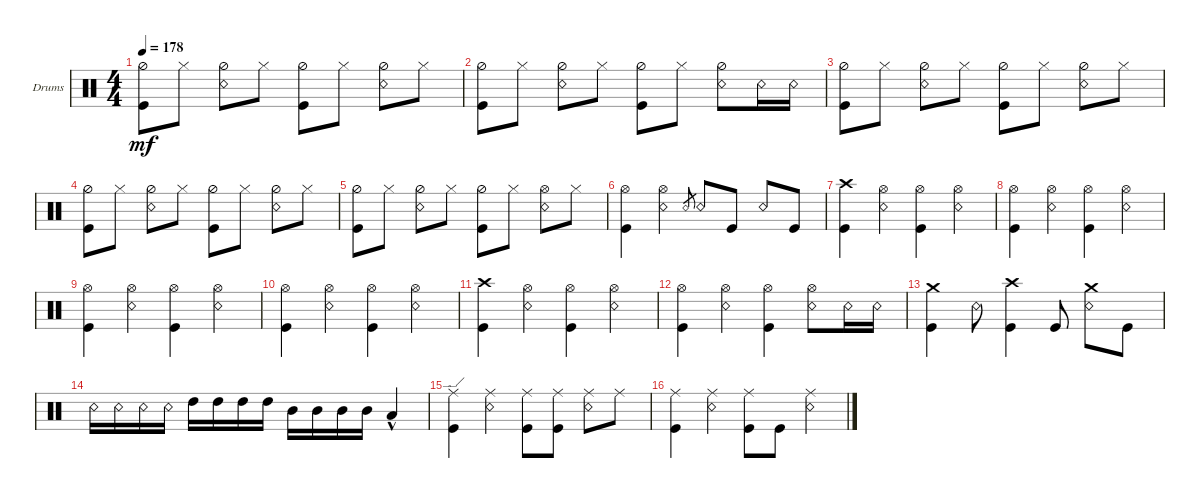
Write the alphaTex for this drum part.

\defaultSystemsLayout 4
\bracketExtendMode groupsimilarinstruments
\firstSystemTrackNameOrientation horizontal
\otherSystemsTrackNameOrientation horizontal
\track ("Drumkit" "Drums") {instrument percussion}
\staff {score}
\articulation defaults
\ts (4 4)
\tempo 178
\clef neutral
\ks c
("Kick (hit)" "Hi-Hat (half)").8{dy mf} "Hi-Hat (closed)".8 ("Hi-Hat (half)" "Snare (rim shot)").8 "Hi-Hat (closed)".8 ("Kick (hit)" "Hi-Hat (half)").8 "Hi-Hat (closed)".8 ("Hi-Hat (half)" "Snare (rim shot)").8 "Hi-Hat (closed)".8 |
("Kick (hit)" "Hi-Hat (half)").8 "Hi-Hat (closed)".8 ("Hi-Hat (half)" "Snare (rim shot)").8 "Hi-Hat (closed)".8 ("Kick (hit)" "Hi-Hat (half)").8 "Hi-Hat (closed)".8 ("Hi-Hat (half)" "Snare (rim shot)").8 "Snare (rim shot)".16 "Snare (rim shot)".16 |
("Kick (hit)" "Hi-Hat (half)").8 "Hi-Hat (closed)".8 ("Hi-Hat (half)" "Snare (rim shot)").8 "Hi-Hat (closed)".8 ("Kick (hit)" "Hi-Hat (half)").8 "Hi-Hat (closed)".8 ("Hi-Hat (half)" "Snare (rim shot)").8 "Hi-Hat (closed)".8 |
("Kick (hit)" "Hi-Hat (half)").8 "Hi-Hat (closed)".8 ("Hi-Hat (half)" "Snare (rim shot)").8 "Hi-Hat (closed)".8 ("Kick (hit)" "Hi-Hat (half)").8 "Hi-Hat (closed)".8 ("Hi-Hat (half)" "Snare (rim shot)").8 "Hi-Hat (closed)".8 |
("Kick (hit)" "Hi-Hat (half)").8 "Hi-Hat (closed)".8 ("Hi-Hat (half)" "Snare (rim shot)").8 "Hi-Hat (closed)".8 ("Kick (hit)" "Hi-Hat (half)").8 "Hi-Hat (closed)".8 ("Hi-Hat (open)" "Snare (rim shot)").8 "Hi-Hat (closed)".8 |
("Kick (hit)" "Hi-Hat (open)").4 ("Hi-Hat (open)" "Snare (rim shot)").4 "Snare (rim shot)".8{gr} "Snare (rim shot)".8 "Kick (hit)".8 "Snare (rim shot)".8 "Kick (hit)".8 |
("Kick (hit)" "Crash high (hit)").4 ("Hi-Hat (open)" "Snare (rim shot)").4 ("Hi-Hat (open)" "Kick (hit)").4 ("Hi-Hat (open)" "Snare (rim shot)").4 |
("Kick (hit)" "Hi-Hat (open)").4 ("Hi-Hat (open)" "Snare (rim shot)").4 ("Hi-Hat (open)" "Kick (hit)").4 ("Hi-Hat (open)" "Snare (rim shot)").4 |
("Kick (hit)" "Hi-Hat (open)").4 ("Hi-Hat (open)" "Snare (rim shot)").4 ("Hi-Hat (open)" "Kick (hit)").4 ("Hi-Hat (open)" "Snare (rim shot)").4 |
("Kick (hit)" "Hi-Hat (open)").4 ("Hi-Hat (open)" "Snare (rim shot)").4 ("Hi-Hat (open)" "Kick (hit)").4 ("Hi-Hat (open)" "Snare (rim shot)").4 |
("Kick (hit)" "Crash high (hit)").4 ("Hi-Hat (open)" "Snare (rim shot)").4 ("Hi-Hat (open)" "Kick (hit)").4 ("Hi-Hat (open)" "Snare (rim shot)").4 |
("Kick (hit)" "Hi-Hat (open)").4 ("Hi-Hat (open)" "Snare (rim shot)").4 ("Hi-Hat (open)" "Kick (hit)").4 ("Hi-Hat (open)" "Snare (rim shot)").8 "Snare (rim shot)".16 "Snare (rim shot)".16 |
("Kick (hit)" "Crash medium (hit)").4 "Snare (rim shot)".8 ("Kick (hit)" "Crash high (hit)").4 "Kick (hit)".8 ("Crash medium (hit)" "Snare (rim shot)").8 "Kick (hit)".8 |
"Snare (rim shot)".16 "Snare (rim shot)".16 "Snare (rim shot)".16 "Snare (rim shot)".16 "High Tom (hit)".16 "High Tom (hit)".16 "High Tom (hit)".16 "High Tom (hit)".16 "Mid Tom (hit)".16 "Mid Tom (hit)".16 "Mid Tom (hit)".16 "Mid Tom (hit)".16 "Low Tom (hit)"{hac}.4 |
("Kick (hit)" "Ride (edge)").4 ("Ride (middle)" "Snare (rim shot)").4 ("Ride (middle)" "Kick (hit)").8 ("Kick (hit)" "Ride (middle)").8 ("Ride (middle)" "Snare (rim shot)").8 "Ride (middle)".8 |
("Kick (hit)" "Ride (middle)").4 ("Ride (middle)" "Snare (rim shot)").4 ("Ride (middle)" "Kick (hit)").8 "Kick (hit)".8 ("Ride (middle)" "Snare (rim shot)").4
